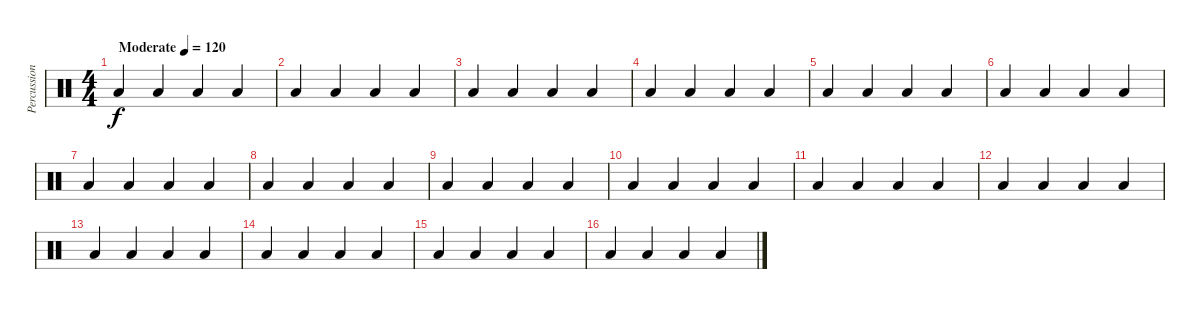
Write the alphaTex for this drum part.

\track ("Percussion" "Percussion") {instrument percussion}
\staff {score}
\articulation defaults
\ts (4 4)
\tempo (120 "Moderate")
\clef neutral
\ks c "Low Tom (hit)".4{dy f} "Low Tom (hit)".4 "Low Tom (hit)".4 "Low Tom (hit)".4
|
"Low Tom (hit)".4 "Low Tom (hit)".4 "Low Tom (hit)".4 "Low Tom (hit)".4 |
"Low Tom (hit)".4 "Low Tom (hit)".4 "Low Tom (hit)".4 "Low Tom (hit)".4 |
"Low Tom (hit)".4 "Low Tom (hit)".4 "Low Tom (hit)".4 "Low Tom (hit)".4 |
"Low Tom (hit)".4 "Low Tom (hit)".4 "Low Tom (hit)".4 "Low Tom (hit)".4 |
"Low Tom (hit)".4 "Low Tom (hit)".4 "Low Tom (hit)".4 "Low Tom (hit)".4 |
"Low Tom (hit)".4 "Low Tom (hit)".4 "Low Tom (hit)".4 "Low Tom (hit)".4 |
"Low Tom (hit)".4 "Low Tom (hit)".4 "Low Tom (hit)".4 "Low Tom (hit)".4 |
"Low Tom (hit)".4 "Low Tom (hit)".4 "Low Tom (hit)".4 "Low Tom (hit)".4 |
"Low Tom (hit)".4 "Low Tom (hit)".4 "Low Tom (hit)".4 "Low Tom (hit)".4 |
"Low Tom (hit)".4 "Low Tom (hit)".4 "Low Tom (hit)".4 "Low Tom (hit)".4 |
"Low Tom (hit)".4 "Low Tom (hit)".4 "Low Tom (hit)".4 "Low Tom (hit)".4 |
"Low Tom (hit)".4 "Low Tom (hit)".4 "Low Tom (hit)".4 "Low Tom (hit)".4 |
"Low Tom (hit)".4 "Low Tom (hit)".4 "Low Tom (hit)".4 "Low Tom (hit)".4 |
"Low Tom (hit)".4 "Low Tom (hit)".4 "Low Tom (hit)".4 "Low Tom (hit)".4 |
"Low Tom (hit)".4 "Low Tom (hit)".4 "Low Tom (hit)".4 "Low Tom (hit)".4
